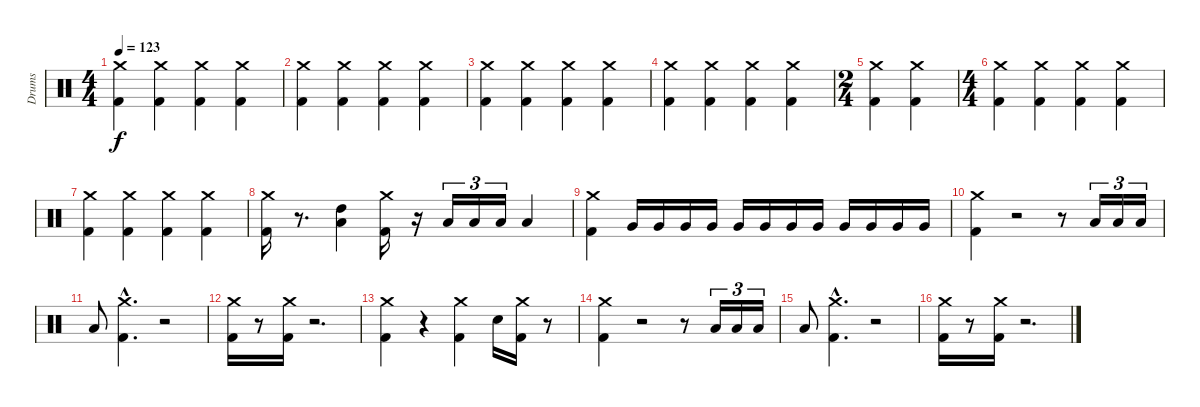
\track ("Drums" "Drums") {instrument percussion}
\staff {score}
\articulation defaults
\ts (4 4)
\tempo 123
\clef neutral
\ks c
("Crash medium (hit)" "Kick (hit) 2").4{dy f} ("Crash medium (hit)" "Kick (hit) 2").4 ("Crash medium (hit)" "Kick (hit) 2").4 ("Crash medium (hit)" "Kick (hit) 2").4 |
("Crash medium (hit)" "Kick (hit) 2").4 ("Crash medium (hit)" "Kick (hit) 2").4 ("Crash medium (hit)" "Kick (hit) 2").4 ("Crash medium (hit)" "Kick (hit) 2").4 |
("Crash medium (hit)" "Kick (hit) 2").4 ("Crash medium (hit)" "Kick (hit) 2").4 ("Crash medium (hit)" "Kick (hit) 2").4 ("Crash medium (hit)" "Kick (hit) 2").4 |
("Crash medium (hit)" "Kick (hit) 2").4 ("Crash medium (hit)" "Kick (hit) 2").4 ("Crash medium (hit)" "Kick (hit) 2").4 ("Crash medium (hit)" "Kick (hit) 2").4 |
\ts (2 4)
("Crash medium (hit)" "Kick (hit) 2").4 ("Crash medium (hit)" "Kick (hit) 2").4 |
\ts (4 4)
("Crash medium (hit)" "Kick (hit) 2").4 ("Crash medium (hit)" "Kick (hit) 2").4 ("Crash medium (hit)" "Kick (hit) 2").4 ("Crash medium (hit)" "Kick (hit) 2").4 |
("Crash medium (hit)" "Kick (hit) 2").4 ("Crash medium (hit)" "Kick (hit) 2").4 ("Crash medium (hit)" "Kick (hit) 2").4 ("Crash medium (hit)" "Kick (hit) 2").4 |
("Crash medium (hit)" "Kick (hit) 2").16 r.8{d} ("High Tom (hit)" "Low Tom (hit)").4 ("Crash medium (hit)" "Kick (hit) 2").16 r.16 "Low Tom (hit)".16{tu (3 2)} "Low Tom (hit)".16{tu (3 2)} "Low Tom (hit)".16{tu (3 2)} "Low Tom (hit)".4 |
("Crash medium (hit)" "Kick (hit) 2").4 "Very Low Tom (hit)".16{volume 5} "Very Low Tom (hit)".16{volume 6} "Very Low Tom (hit)".16{volume 6} "Very Low Tom (hit)".16{volume 7} "Very Low Tom (hit)".16{volume 8} "Very Low Tom (hit)".16{volume 9} "Very Low Tom (hit)".16{volume 9} "Very Low Tom (hit)".16{volume 10} "Very Low Tom (hit)".16{volume 11} "Very Low Tom (hit)".16{volume 12} "Very Low Tom (hit)".16{volume 12} "Very Low Tom (hit)".16{volume 13} |
("Crash medium (hit)" "Kick (hit) 2").4{volume 14} r.2 r.8 "Low Tom (hit)".16{tu (3 2)} "Low Tom (hit)".16{tu (3 2)} "Low Tom (hit)".16{tu (3 2)} |
"Low Floor Tom (hit)".8 ("Crash medium (hit)"{hac} "Kick (hit) 2"{hac}).4{d} r.2 |
("Crash medium (hit)" "Kick (hit) 2").16 r.8 ("Crash medium (hit)" "Kick (hit) 2").16 r.2{d} |
("Crash medium (hit)" "Kick (hit) 2").4 r.4 ("Crash medium (hit)" "Kick (hit) 2").4 "Electric Snare (hit)".16 ("Crash medium (hit)" "Kick (hit) 2").16 r.8 |
("Crash medium (hit)" "Kick (hit) 2").4 r.2 r.8 "Low Tom (hit)".16{tu (3 2)} "Low Tom (hit)".16{tu (3 2)} "Low Tom (hit)".16{tu (3 2)} |
"Low Floor Tom (hit)".8 ("Crash medium (hit)"{hac} "Kick (hit) 2"{hac}).4{d} r.2 |
("Crash medium (hit)" "Kick (hit) 2").16 r.8 ("Crash medium (hit)" "Kick (hit) 2").16 r.2{d}
